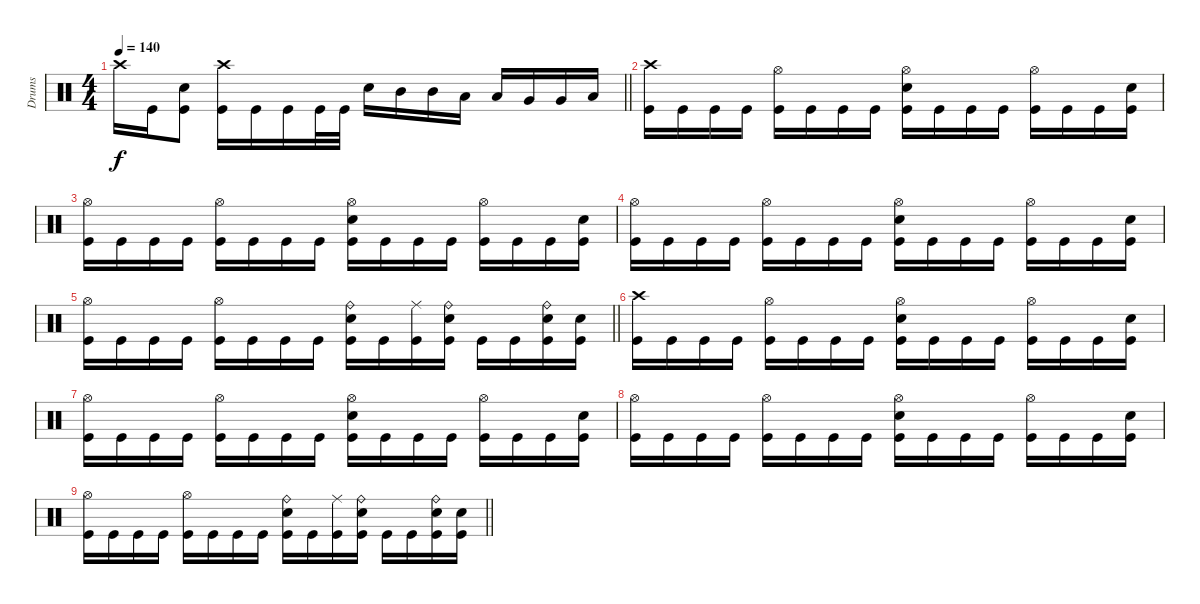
\track ("Drums" "Drums") {instrument percussion}
\staff
\articulation defaults
\ts (4 4)
\tempo 140
\clef neutral
\barLineRight lightlight
\ks c "Crash high (hit)".16{dy f} "Kick (hit)".16
("Electric Snare (hit)" "Kick (hit)").8 ("Crash high (hit)" "Kick (hit)").16 "Kick (hit)".16 "Kick (hit)".16 "Kick (hit)".32 "Kick (hit)".32 "Electric Snare (hit)".16 "Mid Tom (hit)".16 "Mid Tom (hit)".16 "Low Tom (hit)".16 "Low Tom (hit)".16 "Very Low Tom (hit)".16 "Very Low Tom (hit)".16 "Low Floor Tom (hit)".16 |
\section ("" "")
("Crash high (hit)" "Kick (hit)").16 "Kick (hit)".16 "Kick (hit)".16 "Kick (hit)".16 ("Hi-Hat (open)" "Kick (hit)").16 "Kick (hit)".16 "Kick (hit)".16 "Kick (hit)".16 ("Hi-Hat (open)" "Electric Snare (hit)" "Kick (hit)").16 "Kick (hit)".16 "Kick (hit)".16 "Kick (hit)".16 ("Hi-Hat (open)" "Kick (hit)").16 "Kick (hit)".16 "Kick (hit)".16 ("Electric Snare (hit)" "Kick (hit)").16 |
("Hi-Hat (open)" "Kick (hit)").16 "Kick (hit)".16 "Kick (hit)".16 "Kick (hit)".16 ("Hi-Hat (open)" "Kick (hit)").16 "Kick (hit)".16 "Kick (hit)".16 "Kick (hit)".16 ("Hi-Hat (open)" "Electric Snare (hit)" "Kick (hit)").16 "Kick (hit)".16 "Kick (hit)".16 "Kick (hit)".16 ("Hi-Hat (open)" "Kick (hit)").16 "Kick (hit)".16 "Kick (hit)".16 ("Electric Snare (hit)" "Kick (hit)").16 |
("Hi-Hat (open)" "Kick (hit)").16 "Kick (hit)".16 "Kick (hit)".16 "Kick (hit)".16 ("Hi-Hat (open)" "Kick (hit)").16 "Kick (hit)".16 "Kick (hit)".16 "Kick (hit)".16 ("Hi-Hat (open)" "Electric Snare (hit)" "Kick (hit)").16 "Kick (hit)".16 "Kick (hit)".16 "Kick (hit)".16 ("Hi-Hat (open)" "Kick (hit)").16 "Kick (hit)".16 "Kick (hit)".16 ("Electric Snare (hit)" "Kick (hit)").16 |
\barLineRight lightlight
("Hi-Hat (open)" "Kick (hit)").16 "Kick (hit)".16 "Kick (hit)".16 "Kick (hit)".16 ("Hi-Hat (open)" "Kick (hit)").16 "Kick (hit)".16 "Kick (hit)".16 "Kick (hit)".16 ("Ride (bell)" "Electric Snare (hit)" "Kick (hit)").16 "Kick (hit)".16 ("Ride (middle)" "Kick (hit)").16 ("Ride (bell)" "Electric Snare (hit)" "Kick (hit)").16 "Kick (hit)".16 "Kick (hit)".16 ("Ride (bell)" "Electric Snare (hit)" "Kick (hit)").16 ("Electric Snare (hit)" "Kick (hit)").16 |
("Crash high (hit)" "Kick (hit)").16 "Kick (hit)".16 "Kick (hit)".16 "Kick (hit)".16 ("Hi-Hat (open)" "Kick (hit)").16 "Kick (hit)".16 "Kick (hit)".16 "Kick (hit)".16 ("Hi-Hat (open)" "Electric Snare (hit)" "Kick (hit)").16 "Kick (hit)".16 "Kick (hit)".16 "Kick (hit)".16 ("Hi-Hat (open)" "Kick (hit)").16 "Kick (hit)".16 "Kick (hit)".16 ("Electric Snare (hit)" "Kick (hit)").16 |
("Hi-Hat (open)" "Kick (hit)").16 "Kick (hit)".16 "Kick (hit)".16 "Kick (hit)".16 ("Hi-Hat (open)" "Kick (hit)").16 "Kick (hit)".16 "Kick (hit)".16 "Kick (hit)".16 ("Hi-Hat (open)" "Electric Snare (hit)" "Kick (hit)").16 "Kick (hit)".16 "Kick (hit)".16 "Kick (hit)".16 ("Hi-Hat (open)" "Kick (hit)").16 "Kick (hit)".16 "Kick (hit)".16 ("Electric Snare (hit)" "Kick (hit)").16 |
("Hi-Hat (open)" "Kick (hit)").16 "Kick (hit)".16 "Kick (hit)".16 "Kick (hit)".16 ("Hi-Hat (open)" "Kick (hit)").16 "Kick (hit)".16 "Kick (hit)".16 "Kick (hit)".16 ("Hi-Hat (open)" "Electric Snare (hit)" "Kick (hit)").16 "Kick (hit)".16 "Kick (hit)".16 "Kick (hit)".16 ("Hi-Hat (open)" "Kick (hit)").16 "Kick (hit)".16 "Kick (hit)".16 ("Electric Snare (hit)" "Kick (hit)").16 |
\barLineRight lightlight
("Hi-Hat (open)" "Kick (hit)").16 "Kick (hit)".16 "Kick (hit)".16 "Kick (hit)".16 ("Hi-Hat (open)" "Kick (hit)").16 "Kick (hit)".16 "Kick (hit)".16 "Kick (hit)".16 ("Ride (bell)" "Electric Snare (hit)" "Kick (hit)").16 "Kick (hit)".16 ("Ride (middle)" "Kick (hit)").16 ("Ride (bell)" "Electric Snare (hit)" "Kick (hit)").16 "Kick (hit)".16 "Kick (hit)".16 ("Ride (bell)" "Electric Snare (hit)" "Kick (hit)").16 ("Electric Snare (hit)" "Kick (hit)").16
